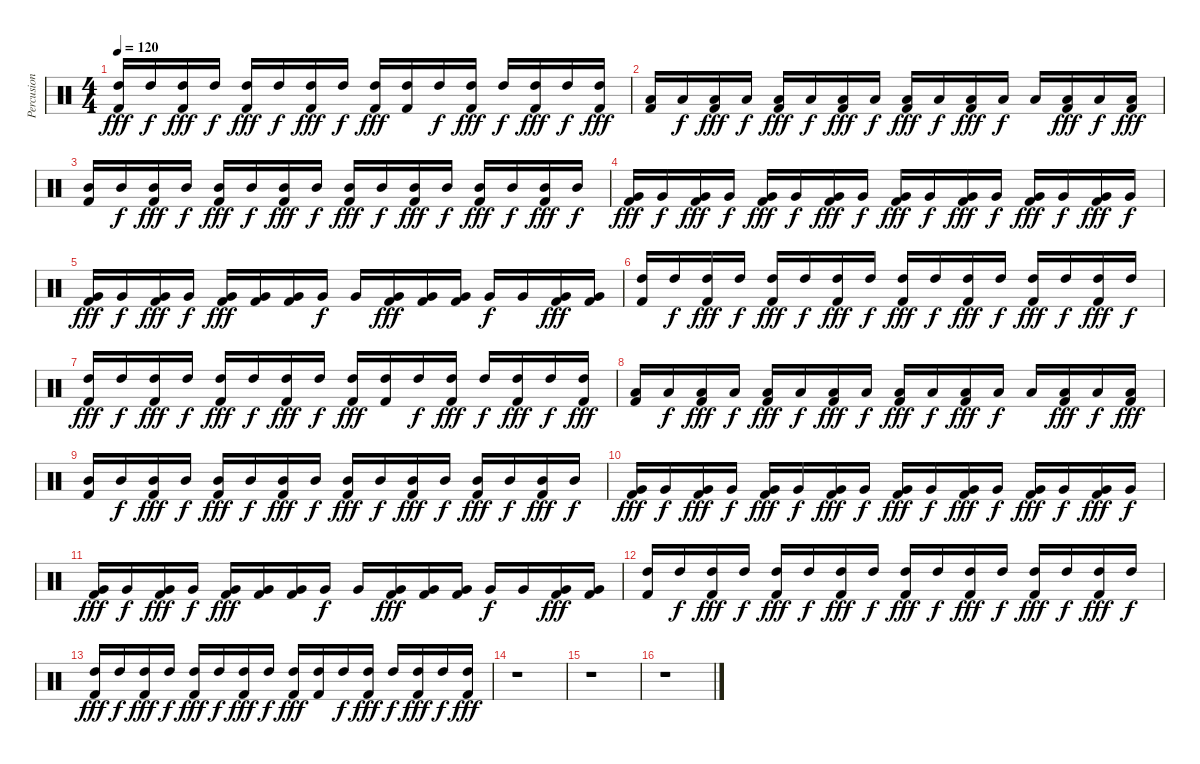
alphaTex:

\track ("Percusion" "Percusion") {instrument percussion}
\staff {score}
\articulation defaults
\ts (4 4)
\tempo 120
\clef neutral
\ks c
("High Tom (hit)" "Kick (hit) 2").16{dy fff} "High Tom (hit)".16{dy f} ("High Tom (hit)" "Kick (hit) 2").16{dy fff} "High Tom (hit)".16{dy f} ("High Tom (hit)" "Kick (hit) 2").16{dy fff} "High Tom (hit)".16{dy f} ("High Tom (hit)" "Kick (hit) 2").16{dy fff} "High Tom (hit)".16{dy f} ("High Tom (hit)" "Kick (hit) 2").16{dy fff} ("High Tom (hit)" "Kick (hit) 2").16 "High Tom (hit)".16{dy f} ("High Tom (hit)" "Kick (hit) 2").16{dy fff} "High Tom (hit)".16{dy f} ("High Tom (hit)" "Kick (hit) 2").16{dy fff} "High Tom (hit)".16{dy f} ("High Tom (hit)" "Kick (hit) 2").16{dy fff} |
("Low Tom (hit)" "Kick (hit) 2").16 "Low Tom (hit)".16{dy f} ("Low Tom (hit)" "Kick (hit) 2").16{dy fff} "Low Tom (hit)".16{dy f} ("Low Tom (hit)" "Kick (hit) 2").16{dy fff} "Low Tom (hit)".16{dy f} ("Low Tom (hit)" "Kick (hit) 2").16{dy fff} "Low Tom (hit)".16{dy f} ("Low Tom (hit)" "Kick (hit) 2").16{dy fff} "Low Tom (hit)".16{dy f} ("Low Tom (hit)" "Kick (hit) 2").16{dy fff} "Low Tom (hit)".16{dy f} "Low Tom (hit)".16 ("Low Tom (hit)" "Kick (hit) 2").16{dy fff} "Low Tom (hit)".16{dy f} ("Low Tom (hit)" "Kick (hit) 2").16{dy fff} |
("Mid Tom (hit)" "Kick (hit) 2").16 "Mid Tom (hit)".16{dy f} ("Mid Tom (hit)" "Kick (hit) 2").16{dy fff} "Mid Tom (hit)".16{dy f} ("Mid Tom (hit)" "Kick (hit) 2").16{dy fff} "Mid Tom (hit)".16{dy f} ("Mid Tom (hit)" "Kick (hit) 2").16{dy fff} "Mid Tom (hit)".16{dy f} ("Mid Tom (hit)" "Kick (hit) 2").16{dy fff} "Mid Tom (hit)".16{dy f} ("Mid Tom (hit)" "Kick (hit) 2").16{dy fff} "Mid Tom (hit)".16{dy f} ("Mid Tom (hit)" "Kick (hit) 2").16{dy fff} "Mid Tom (hit)".16{dy f} ("Mid Tom (hit)" "Kick (hit) 2").16{dy fff} "Mid Tom (hit)".16{dy f} |
("Very Low Tom (hit)" "Kick (hit) 2").16{dy fff} "Very Low Tom (hit)".16{dy f} ("Very Low Tom (hit)" "Kick (hit) 2").16{dy fff} "Very Low Tom (hit)".16{dy f} ("Very Low Tom (hit)" "Kick (hit) 2").16{dy fff} "Very Low Tom (hit)".16{dy f} ("Very Low Tom (hit)" "Kick (hit) 2").16{dy fff} "Very Low Tom (hit)".16{dy f} ("Very Low Tom (hit)" "Kick (hit) 2").16{dy fff} "Very Low Tom (hit)".16{dy f} ("Very Low Tom (hit)" "Kick (hit) 2").16{dy fff} "Very Low Tom (hit)".16{dy f} ("Very Low Tom (hit)" "Kick (hit) 2").16{dy fff} "Very Low Tom (hit)".16{dy f} ("Very Low Tom (hit)" "Kick (hit) 2").16{dy fff} "Very Low Tom (hit)".16{dy f} |
("Very Low Tom (hit)" "Kick (hit) 2").16{dy fff} "Very Low Tom (hit)".16{dy f} ("Very Low Tom (hit)" "Kick (hit) 2").16{dy fff} "Very Low Tom (hit)".16{dy f} ("Very Low Tom (hit)" "Kick (hit) 2").16{dy fff} ("Very Low Tom (hit)" "Kick (hit) 2").16 ("Very Low Tom (hit)" "Kick (hit) 2").16 "Very Low Tom (hit)".16{dy f} "Very Low Tom (hit)".16 ("Very Low Tom (hit)" "Kick (hit) 2").16{dy fff} ("Very Low Tom (hit)" "Kick (hit) 2").16 ("Very Low Tom (hit)" "Kick (hit) 2").16 "Very Low Tom (hit)".16{dy f} "Very Low Tom (hit)".16 ("Very Low Tom (hit)" "Kick (hit) 2").16{dy fff} ("Very Low Tom (hit)" "Kick (hit) 2").16 |
("High Tom (hit)" "Kick (hit) 2").16 "High Tom (hit)".16{dy f} ("High Tom (hit)" "Kick (hit) 2").16{dy fff} "High Tom (hit)".16{dy f} ("High Tom (hit)" "Kick (hit) 2").16{dy fff} "High Tom (hit)".16{dy f} ("High Tom (hit)" "Kick (hit) 2").16{dy fff} "High Tom (hit)".16{dy f} ("High Tom (hit)" "Kick (hit) 2").16{dy fff} "High Tom (hit)".16{dy f} ("High Tom (hit)" "Kick (hit) 2").16{dy fff} "High Tom (hit)".16{dy f} ("High Tom (hit)" "Kick (hit) 2").16{dy fff} "High Tom (hit)".16{dy f} ("High Tom (hit)" "Kick (hit) 2").16{dy fff} "High Tom (hit)".16{dy f} |
("High Tom (hit)" "Kick (hit) 2").16{dy fff} "High Tom (hit)".16{dy f} ("High Tom (hit)" "Kick (hit) 2").16{dy fff} "High Tom (hit)".16{dy f} ("High Tom (hit)" "Kick (hit) 2").16{dy fff} "High Tom (hit)".16{dy f} ("High Tom (hit)" "Kick (hit) 2").16{dy fff} "High Tom (hit)".16{dy f} ("High Tom (hit)" "Kick (hit) 2").16{dy fff} ("High Tom (hit)" "Kick (hit) 2").16 "High Tom (hit)".16{dy f} ("High Tom (hit)" "Kick (hit) 2").16{dy fff} "High Tom (hit)".16{dy f} ("High Tom (hit)" "Kick (hit) 2").16{dy fff} "High Tom (hit)".16{dy f} ("High Tom (hit)" "Kick (hit) 2").16{dy fff} |
("Low Tom (hit)" "Kick (hit) 2").16 "Low Tom (hit)".16{dy f} ("Low Tom (hit)" "Kick (hit) 2").16{dy fff} "Low Tom (hit)".16{dy f} ("Low Tom (hit)" "Kick (hit) 2").16{dy fff} "Low Tom (hit)".16{dy f} ("Low Tom (hit)" "Kick (hit) 2").16{dy fff} "Low Tom (hit)".16{dy f} ("Low Tom (hit)" "Kick (hit) 2").16{dy fff} "Low Tom (hit)".16{dy f} ("Low Tom (hit)" "Kick (hit) 2").16{dy fff} "Low Tom (hit)".16{dy f} "Low Tom (hit)".16 ("Low Tom (hit)" "Kick (hit) 2").16{dy fff} "Low Tom (hit)".16{dy f} ("Low Tom (hit)" "Kick (hit) 2").16{dy fff} |
("Mid Tom (hit)" "Kick (hit) 2").16 "Mid Tom (hit)".16{dy f} ("Mid Tom (hit)" "Kick (hit) 2").16{dy fff} "Mid Tom (hit)".16{dy f} ("Mid Tom (hit)" "Kick (hit) 2").16{dy fff} "Mid Tom (hit)".16{dy f} ("Mid Tom (hit)" "Kick (hit) 2").16{dy fff} "Mid Tom (hit)".16{dy f} ("Mid Tom (hit)" "Kick (hit) 2").16{dy fff} "Mid Tom (hit)".16{dy f} ("Mid Tom (hit)" "Kick (hit) 2").16{dy fff} "Mid Tom (hit)".16{dy f} ("Mid Tom (hit)" "Kick (hit) 2").16{dy fff} "Mid Tom (hit)".16{dy f} ("Mid Tom (hit)" "Kick (hit) 2").16{dy fff} "Mid Tom (hit)".16{dy f} |
("Very Low Tom (hit)" "Kick (hit) 2").16{dy fff} "Very Low Tom (hit)".16{dy f} ("Very Low Tom (hit)" "Kick (hit) 2").16{dy fff} "Very Low Tom (hit)".16{dy f} ("Very Low Tom (hit)" "Kick (hit) 2").16{dy fff} "Very Low Tom (hit)".16{dy f} ("Very Low Tom (hit)" "Kick (hit) 2").16{dy fff} "Very Low Tom (hit)".16{dy f} ("Very Low Tom (hit)" "Kick (hit) 2").16{dy fff} "Very Low Tom (hit)".16{dy f} ("Very Low Tom (hit)" "Kick (hit) 2").16{dy fff} "Very Low Tom (hit)".16{dy f} ("Very Low Tom (hit)" "Kick (hit) 2").16{dy fff} "Very Low Tom (hit)".16{dy f} ("Very Low Tom (hit)" "Kick (hit) 2").16{dy fff} "Very Low Tom (hit)".16{dy f} |
("Very Low Tom (hit)" "Kick (hit) 2").16{dy fff} "Very Low Tom (hit)".16{dy f} ("Very Low Tom (hit)" "Kick (hit) 2").16{dy fff} "Very Low Tom (hit)".16{dy f} ("Very Low Tom (hit)" "Kick (hit) 2").16{dy fff} ("Very Low Tom (hit)" "Kick (hit) 2").16 ("Very Low Tom (hit)" "Kick (hit) 2").16 "Very Low Tom (hit)".16{dy f} "Very Low Tom (hit)".16 ("Very Low Tom (hit)" "Kick (hit) 2").16{dy fff} ("Very Low Tom (hit)" "Kick (hit) 2").16 ("Very Low Tom (hit)" "Kick (hit) 2").16 "Very Low Tom (hit)".16{dy f} "Very Low Tom (hit)".16 ("Very Low Tom (hit)" "Kick (hit) 2").16{dy fff} ("Very Low Tom (hit)" "Kick (hit) 2").16 |
("High Tom (hit)" "Kick (hit) 2").16 "High Tom (hit)".16{dy f} ("High Tom (hit)" "Kick (hit) 2").16{dy fff} "High Tom (hit)".16{dy f} ("High Tom (hit)" "Kick (hit) 2").16{dy fff} "High Tom (hit)".16{dy f} ("High Tom (hit)" "Kick (hit) 2").16{dy fff} "High Tom (hit)".16{dy f} ("High Tom (hit)" "Kick (hit) 2").16{dy fff} "High Tom (hit)".16{dy f} ("High Tom (hit)" "Kick (hit) 2").16{dy fff} "High Tom (hit)".16{dy f} ("High Tom (hit)" "Kick (hit) 2").16{dy fff} "High Tom (hit)".16{dy f} ("High Tom (hit)" "Kick (hit) 2").16{dy fff} "High Tom (hit)".16{dy f} |
("High Tom (hit)" "Kick (hit) 2").16{dy fff} "High Tom (hit)".16{dy f} ("High Tom (hit)" "Kick (hit) 2").16{dy fff} "High Tom (hit)".16{dy f} ("High Tom (hit)" "Kick (hit) 2").16{dy fff} "High Tom (hit)".16{dy f} ("High Tom (hit)" "Kick (hit) 2").16{dy fff} "High Tom (hit)".16{dy f} ("High Tom (hit)" "Kick (hit) 2").16{dy fff} ("High Tom (hit)" "Kick (hit) 2").16 "High Tom (hit)".16{dy f} ("High Tom (hit)" "Kick (hit) 2").16{dy fff} "High Tom (hit)".16{dy f} ("High Tom (hit)" "Kick (hit) 2").16{dy fff} "High Tom (hit)".16{dy f} ("High Tom (hit)" "Kick (hit) 2").16{dy fff} |
r.1 |
r.1 |
r.1
